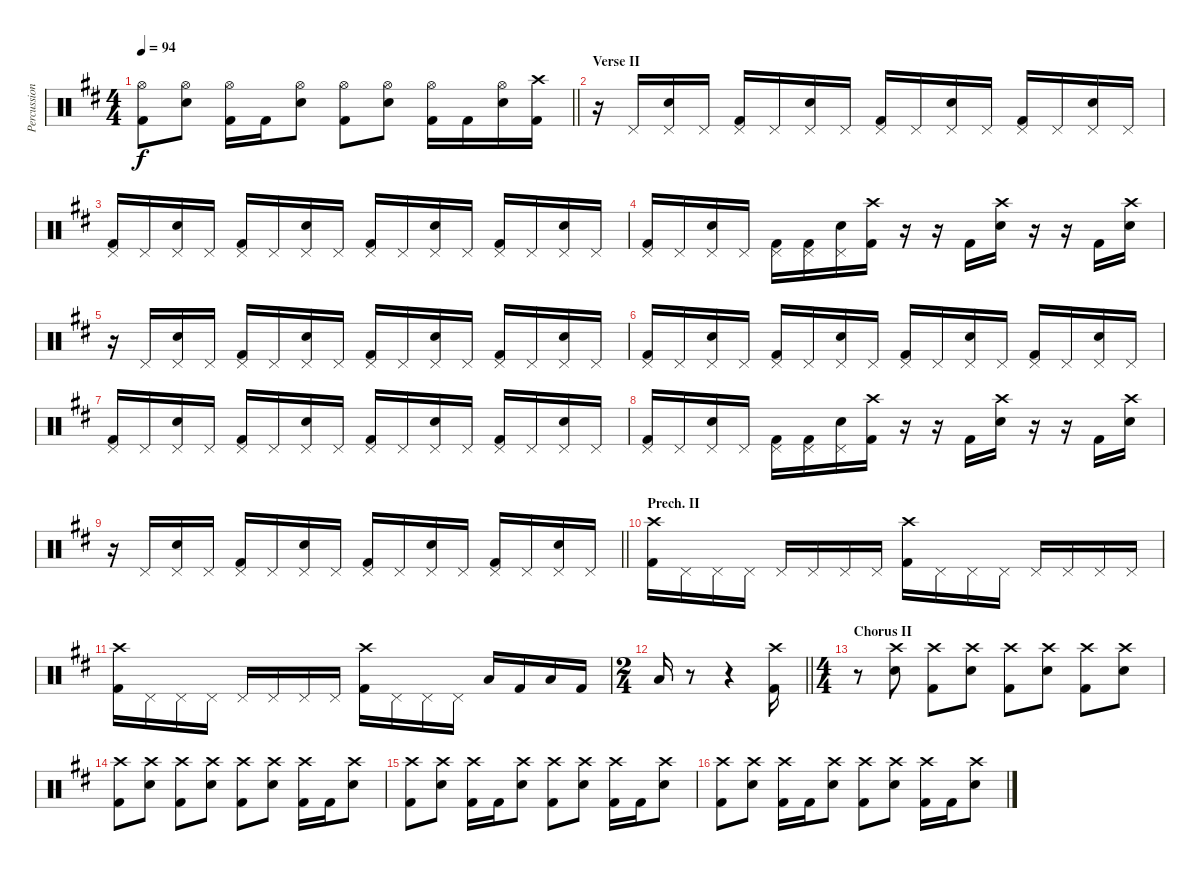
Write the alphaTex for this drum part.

\track ("Percussion" "Percussion") {instrument percussion}
\staff {score}
\articulation defaults
\ts (4 4)
\tempo 94
\clef neutral
\barLineRight lightlight
\ks bminor
("Hi-Hat (open)" "Kick (hit) 2").8{dy f} ("Hi-Hat (open)" "Electric Snare (hit)").8 ("Hi-Hat (open)" "Kick (hit) 2").16 "Kick (hit) 2".16 ("Hi-Hat (open)" "Electric Snare (hit)").8 ("Hi-Hat (open)" "Kick (hit) 2").8 ("Hi-Hat (open)" "Electric Snare (hit)").8 ("Hi-Hat (open)" "Kick (hit) 2").16 "Kick (hit) 2".16 ("Hi-Hat (open)" "Electric Snare (hit)").16 ("Crash high (hit)" "Kick (hit) 2").16 |
\section ("" "Verse II")
r.16 "Pedal Hi-Hat (hit)".16 ("Pedal Hi-Hat (hit)" "Electric Snare (hit)").16 "Pedal Hi-Hat (hit)".16 ("Pedal Hi-Hat (hit)" "Kick (hit) 2").16 "Pedal Hi-Hat (hit)".16 ("Pedal Hi-Hat (hit)" "Electric Snare (hit)").16 "Pedal Hi-Hat (hit)".16 ("Pedal Hi-Hat (hit)" "Kick (hit) 2").16 "Pedal Hi-Hat (hit)".16 ("Pedal Hi-Hat (hit)" "Electric Snare (hit)").16 "Pedal Hi-Hat (hit)".16 ("Pedal Hi-Hat (hit)" "Kick (hit) 2").16 "Pedal Hi-Hat (hit)".16 ("Pedal Hi-Hat (hit)" "Electric Snare (hit)").16 "Pedal Hi-Hat (hit)".16 |
("Pedal Hi-Hat (hit)" "Kick (hit) 2").16 "Pedal Hi-Hat (hit)".16 ("Pedal Hi-Hat (hit)" "Electric Snare (hit)").16 "Pedal Hi-Hat (hit)".16 ("Pedal Hi-Hat (hit)" "Kick (hit) 2").16 "Pedal Hi-Hat (hit)".16 ("Pedal Hi-Hat (hit)" "Electric Snare (hit)").16 "Pedal Hi-Hat (hit)".16 ("Pedal Hi-Hat (hit)" "Kick (hit) 2").16 "Pedal Hi-Hat (hit)".16 ("Pedal Hi-Hat (hit)" "Electric Snare (hit)").16 "Pedal Hi-Hat (hit)".16 ("Pedal Hi-Hat (hit)" "Kick (hit) 2").16 "Pedal Hi-Hat (hit)".16 ("Pedal Hi-Hat (hit)" "Electric Snare (hit)").16 "Pedal Hi-Hat (hit)".16 |
("Pedal Hi-Hat (hit)" "Kick (hit) 2").16 "Pedal Hi-Hat (hit)".16 ("Pedal Hi-Hat (hit)" "Electric Snare (hit)").16 "Pedal Hi-Hat (hit)".16 ("Pedal Hi-Hat (hit)" "Kick (hit) 2").16 ("Pedal Hi-Hat (hit)" "Kick (hit) 2").16 ("Pedal Hi-Hat (hit)" "Electric Snare (hit)").16 ("Crash high (hit)" "Kick (hit) 2").16 r.16 r.16 "Kick (hit) 2".16 ("Crash high (hit)" "Electric Snare (hit)").16 r.16 r.16 "Kick (hit) 2".16 ("Crash high (hit)" "Electric Snare (hit)").16 |
r.16 "Pedal Hi-Hat (hit)".16 ("Pedal Hi-Hat (hit)" "Electric Snare (hit)").16 "Pedal Hi-Hat (hit)".16 ("Pedal Hi-Hat (hit)" "Kick (hit) 2").16 "Pedal Hi-Hat (hit)".16 ("Pedal Hi-Hat (hit)" "Electric Snare (hit)").16 "Pedal Hi-Hat (hit)".16 ("Pedal Hi-Hat (hit)" "Kick (hit) 2").16 "Pedal Hi-Hat (hit)".16 ("Pedal Hi-Hat (hit)" "Electric Snare (hit)").16 "Pedal Hi-Hat (hit)".16 ("Pedal Hi-Hat (hit)" "Kick (hit) 2").16 "Pedal Hi-Hat (hit)".16 ("Pedal Hi-Hat (hit)" "Electric Snare (hit)").16 "Pedal Hi-Hat (hit)".16 |
("Pedal Hi-Hat (hit)" "Kick (hit) 2").16 "Pedal Hi-Hat (hit)".16 ("Pedal Hi-Hat (hit)" "Electric Snare (hit)").16 "Pedal Hi-Hat (hit)".16 ("Pedal Hi-Hat (hit)" "Kick (hit) 2").16 "Pedal Hi-Hat (hit)".16 ("Pedal Hi-Hat (hit)" "Electric Snare (hit)").16 "Pedal Hi-Hat (hit)".16 ("Pedal Hi-Hat (hit)" "Kick (hit) 2").16 "Pedal Hi-Hat (hit)".16 ("Pedal Hi-Hat (hit)" "Electric Snare (hit)").16 "Pedal Hi-Hat (hit)".16 ("Pedal Hi-Hat (hit)" "Kick (hit) 2").16 "Pedal Hi-Hat (hit)".16 ("Pedal Hi-Hat (hit)" "Electric Snare (hit)").16 "Pedal Hi-Hat (hit)".16 |
("Pedal Hi-Hat (hit)" "Kick (hit) 2").16 "Pedal Hi-Hat (hit)".16 ("Pedal Hi-Hat (hit)" "Electric Snare (hit)").16 "Pedal Hi-Hat (hit)".16 ("Pedal Hi-Hat (hit)" "Kick (hit) 2").16 "Pedal Hi-Hat (hit)".16 ("Pedal Hi-Hat (hit)" "Electric Snare (hit)").16 "Pedal Hi-Hat (hit)".16 ("Pedal Hi-Hat (hit)" "Kick (hit) 2").16 "Pedal Hi-Hat (hit)".16 ("Pedal Hi-Hat (hit)" "Electric Snare (hit)").16 "Pedal Hi-Hat (hit)".16 ("Pedal Hi-Hat (hit)" "Kick (hit) 2").16 "Pedal Hi-Hat (hit)".16 ("Pedal Hi-Hat (hit)" "Electric Snare (hit)").16 "Pedal Hi-Hat (hit)".16 |
("Pedal Hi-Hat (hit)" "Kick (hit) 2").16 "Pedal Hi-Hat (hit)".16 ("Pedal Hi-Hat (hit)" "Electric Snare (hit)").16 "Pedal Hi-Hat (hit)".16 ("Pedal Hi-Hat (hit)" "Kick (hit) 2").16 ("Pedal Hi-Hat (hit)" "Kick (hit) 2").16 ("Pedal Hi-Hat (hit)" "Electric Snare (hit)").16 ("Crash high (hit)" "Kick (hit) 2").16 r.16 r.16 "Kick (hit) 2".16 ("Crash high (hit)" "Electric Snare (hit)").16 r.16 r.16 "Kick (hit) 2".16 ("Crash high (hit)" "Electric Snare (hit)").16 |
\barLineRight lightlight
r.16 "Pedal Hi-Hat (hit)".16 ("Pedal Hi-Hat (hit)" "Electric Snare (hit)").16 "Pedal Hi-Hat (hit)".16 ("Pedal Hi-Hat (hit)" "Kick (hit) 2").16 "Pedal Hi-Hat (hit)".16 ("Pedal Hi-Hat (hit)" "Electric Snare (hit)").16 "Pedal Hi-Hat (hit)".16 ("Pedal Hi-Hat (hit)" "Kick (hit) 2").16 "Pedal Hi-Hat (hit)".16 ("Pedal Hi-Hat (hit)" "Electric Snare (hit)").16 "Pedal Hi-Hat (hit)".16 ("Pedal Hi-Hat (hit)" "Kick (hit) 2").16 "Pedal Hi-Hat (hit)".16 ("Pedal Hi-Hat (hit)" "Electric Snare (hit)").16 "Pedal Hi-Hat (hit)".16 |
\section ("" "Prech. II")
("Crash high (hit)" "Kick (hit) 2").16 "Pedal Hi-Hat (hit)".16 "Pedal Hi-Hat (hit)".16 "Pedal Hi-Hat (hit)".16 "Pedal Hi-Hat (hit)".16 "Pedal Hi-Hat (hit)".16 "Pedal Hi-Hat (hit)".16 "Pedal Hi-Hat (hit)".16 ("Crash high (hit)" "Kick (hit) 2").16 "Pedal Hi-Hat (hit)".16 "Pedal Hi-Hat (hit)".16 "Pedal Hi-Hat (hit)".16 "Pedal Hi-Hat (hit)".16 "Pedal Hi-Hat (hit)".16 "Pedal Hi-Hat (hit)".16 "Pedal Hi-Hat (hit)".16 |
("Crash high (hit)" "Kick (hit) 2").16 "Pedal Hi-Hat (hit)".16 "Pedal Hi-Hat (hit)".16 "Pedal Hi-Hat (hit)".16 "Pedal Hi-Hat (hit)".16 "Pedal Hi-Hat (hit)".16 "Pedal Hi-Hat (hit)".16 "Pedal Hi-Hat (hit)".16 ("Crash high (hit)" "Kick (hit) 2").16 "Pedal Hi-Hat (hit)".16 "Pedal Hi-Hat (hit)".16 "Pedal Hi-Hat (hit)".16 "Low Floor Tom (hit)".16 "Kick (hit) 2".16 "Low Floor Tom (hit)".16 "Kick (hit) 2".16 |
\ts (2 4)
\barLineRight lightlight "Low Floor Tom (hit)".16
r.8 r.4 ("Crash high (hit)" "Kick (hit) 2").16 |
\ts (4 4)
\section ("" "Chorus II")
r.8 ("Crash high (hit)" "Electric Snare (hit)").8 ("Crash high (hit)" "Kick (hit) 2").8 ("Crash high (hit)" "Electric Snare (hit)").8 ("Crash high (hit)" "Kick (hit) 2").8 ("Crash high (hit)" "Electric Snare (hit)").8 ("Crash high (hit)" "Kick (hit) 2").8 ("Crash high (hit)" "Electric Snare (hit)").8 |
("Crash high (hit)" "Kick (hit) 2").8 ("Crash high (hit)" "Electric Snare (hit)").8 ("Crash high (hit)" "Kick (hit) 2").8 ("Crash high (hit)" "Electric Snare (hit)").8 ("Crash high (hit)" "Kick (hit) 2").8 ("Crash high (hit)" "Electric Snare (hit)").8 ("Crash high (hit)" "Kick (hit) 2").16 "Kick (hit) 2".16 ("Crash high (hit)" "Electric Snare (hit)").8 |
("Crash high (hit)" "Kick (hit) 2").8 ("Crash high (hit)" "Electric Snare (hit)").8 ("Crash high (hit)" "Kick (hit) 2").16 "Kick (hit) 2".16 ("Crash high (hit)" "Electric Snare (hit)").8 ("Crash high (hit)" "Kick (hit) 2").8 ("Crash high (hit)" "Electric Snare (hit)").8 ("Crash high (hit)" "Kick (hit) 2").16 "Kick (hit) 2".16 ("Crash high (hit)" "Electric Snare (hit)").8 |
("Crash high (hit)" "Kick (hit) 2").8 ("Crash high (hit)" "Electric Snare (hit)").8 ("Crash high (hit)" "Kick (hit) 2").16 "Kick (hit) 2".16 ("Crash high (hit)" "Electric Snare (hit)").8 ("Crash high (hit)" "Kick (hit) 2").8 ("Crash high (hit)" "Electric Snare (hit)").8 ("Crash high (hit)" "Kick (hit) 2").16 "Kick (hit) 2".16 ("Crash high (hit)" "Electric Snare (hit)").8
